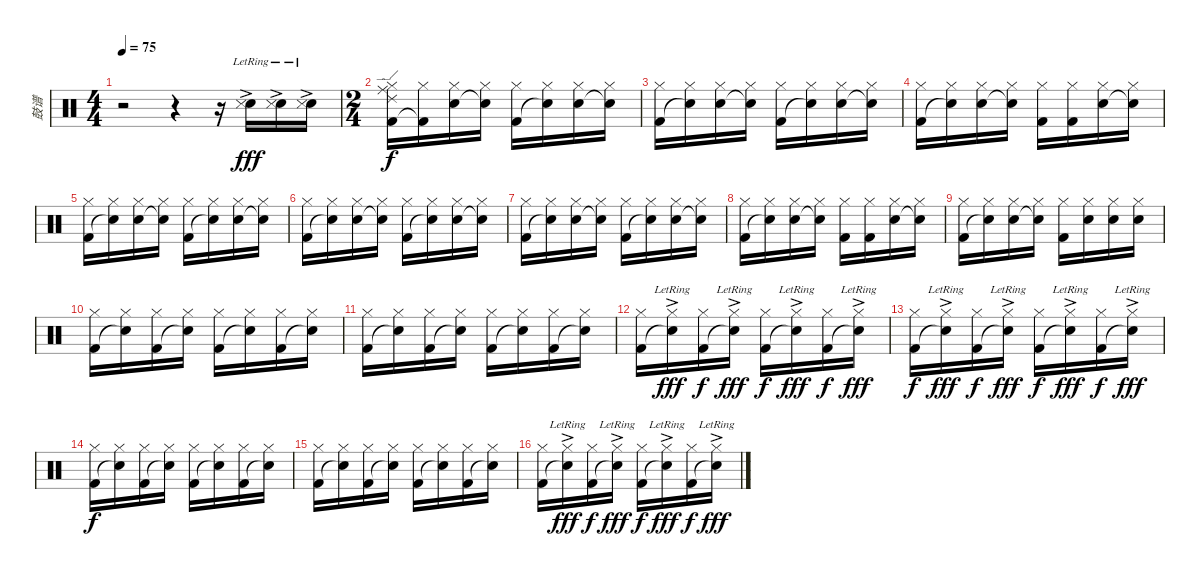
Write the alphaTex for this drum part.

\track ("鼓谱" "鼓谱") {instrument percussion}
\staff {score}
\articulation defaults
\ts (4 4)
\tempo 75
\clef neutral
\ks c
r.2{dy fff} r.4 r.16 ("Electric Snare (hit)"{ac lr} "Snare (side stick) 3"{ac lr}).16 ("Electric Snare (hit)"{ac lr} "Snare (side stick) 3"{ac lr}).16 ("Electric Snare (hit)"{ac lr} "Snare (side stick) 3"{ac lr}).16 |
\ts (2 4)
("Kick (hit) 2" "Ride (middle)" "Ride (edge) 2" "Hi-Hat (closed)").16{dy f} ("Kick (hit) 2"{t} "Hi-Hat (closed)").16 ("Electric Snare (hit)" "Hi-Hat (closed)").16 ("Snare (hit) 2"{t} "Hi-Hat (closed)").16 ("Kick (hit) 2" "Hi-Hat (closed)").16 ("Snare (hit) 2"{t} "Hi-Hat (closed)").16 ("Electric Snare (hit)" "Hi-Hat (closed)").16 ("Snare (hit) 2"{t} "Hi-Hat (closed)").16 |
("Kick (hit) 2" "Hi-Hat (closed)").16 ("Snare (hit)"{t} "Hi-Hat (closed)").16 ("Electric Snare (hit)" "Hi-Hat (closed)").16 ("Snare (hit)"{t} "Hi-Hat (closed)").16 ("Kick (hit) 2" "Hi-Hat (closed)").16 ("Snare (hit)"{t} "Hi-Hat (closed)").16 ("Electric Snare (hit)" "Hi-Hat (closed)").16 ("Snare (hit)"{t} "Hi-Hat (closed)").16 |
("Kick (hit) 2" "Hi-Hat (closed)").16 ("Snare (hit)"{t} "Hi-Hat (closed)").16 ("Electric Snare (hit)" "Hi-Hat (closed)").16 ("Snare (hit)"{t} "Hi-Hat (closed)").16 ("Kick (hit) 2" "Hi-Hat (closed)").16 ("Kick (hit) 2" "Hi-Hat (closed)").16 ("Electric Snare (hit)" "Hi-Hat (closed)").16 ("Snare (hit)"{t} "Hi-Hat (closed)").16 |
("Kick (hit) 2" "Hi-Hat (closed)").16 ("Snare (hit)"{t} "Hi-Hat (closed)").16 ("Electric Snare (hit)" "Hi-Hat (closed)").16 ("Snare (hit)"{t} "Hi-Hat (closed)").16 ("Kick (hit) 2" "Hi-Hat (closed)").16 ("Snare (hit)"{t} "Hi-Hat (closed)").16 ("Electric Snare (hit)" "Hi-Hat (closed)").16 ("Snare (hit)"{t} "Hi-Hat (closed)").16 |
("Kick (hit) 2" "Hi-Hat (closed)").16 ("Snare (hit)"{t} "Hi-Hat (closed)").16 ("Electric Snare (hit)" "Hi-Hat (closed)").16 ("Snare (hit)"{t} "Hi-Hat (closed)").16 ("Kick (hit) 2" "Hi-Hat (closed)").16 ("Snare (hit)"{t} "Hi-Hat (closed)").16 ("Electric Snare (hit)" "Hi-Hat (closed)").16 ("Snare (hit)"{t} "Hi-Hat (closed)").16 |
("Kick (hit) 2" "Hi-Hat (closed)").16 ("Snare (hit)"{t} "Hi-Hat (closed)").16 ("Electric Snare (hit)" "Hi-Hat (closed)").16 ("Snare (hit)"{t} "Hi-Hat (closed)").16 ("Kick (hit) 2" "Hi-Hat (closed)").16 ("Snare (hit)"{t} "Hi-Hat (closed)").16 ("Electric Snare (hit)" "Hi-Hat (closed)").16 ("Snare (hit)"{t} "Hi-Hat (closed)").16 |
("Kick (hit) 2" "Hi-Hat (closed)").16 ("Snare (hit)"{t} "Hi-Hat (closed)").16 ("Electric Snare (hit)" "Hi-Hat (closed)").16 ("Snare (hit)"{t} "Hi-Hat (closed)").16 ("Kick (hit) 2" "Hi-Hat (closed)").16 ("Kick (hit) 2" "Hi-Hat (closed)").16 ("Electric Snare (hit)" "Hi-Hat (closed)").16 ("Snare (hit)"{t} "Hi-Hat (closed)").16 |
("Kick (hit) 2" "Hi-Hat (closed)").16 ("Snare (hit)"{t} "Hi-Hat (closed)").16 ("Electric Snare (hit)" "Hi-Hat (closed)").16 ("Snare (hit)"{t} "Hi-Hat (closed)").16 ("Kick (hit) 2" "Hi-Hat (closed)").16 ("Electric Snare (hit)" "Hi-Hat (closed)").16 ("Electric Snare (hit)" "Hi-Hat (closed)").16{volume 14} ("Electric Snare (hit)" "Hi-Hat (closed)").16{volume 16} |
("Kick (hit) 2" "Hi-Hat (closed)").16{volume 12} ("Snare (hit)"{t} "Hi-Hat (closed)").16 ("Kick (hit) 2" "Hi-Hat (closed)").16 ("Snare (hit)"{t} "Hi-Hat (closed)").16 ("Kick (hit) 2" "Hi-Hat (closed)").16 ("Snare (hit)"{t} "Hi-Hat (closed)").16 ("Kick (hit) 2" "Hi-Hat (closed)").16 ("Snare (hit)"{t} "Hi-Hat (closed)").16 |
("Kick (hit) 2" "Hi-Hat (closed)").16 ("Snare (hit)"{t} "Hi-Hat (closed)").16 ("Kick (hit) 2" "Hi-Hat (closed)").16 ("Snare (hit)"{t} "Hi-Hat (closed)").16 ("Kick (hit) 2" "Hi-Hat (closed)").16 ("Snare (hit)"{t} "Hi-Hat (closed)").16 ("Kick (hit) 2" "Hi-Hat (closed)").16 ("Snare (hit)"{t} "Hi-Hat (closed)").16 |
("Kick (hit) 2" "Hi-Hat (closed)").16 ("Snare (hit)"{t} "Hi-Hat (closed)"{ac lr}).16{dy fff} ("Kick (hit) 2" "Hi-Hat (closed)").16{dy f} ("Snare (hit)"{t} "Hi-Hat (closed)"{ac lr}).16{dy fff} ("Kick (hit) 2" "Hi-Hat (closed)").16{dy f} ("Snare (hit)"{t} "Hi-Hat (closed)"{ac lr}).16{dy fff} ("Kick (hit) 2" "Hi-Hat (closed)").16{dy f} ("Snare (hit)"{t} "Hi-Hat (closed)"{ac lr}).16{dy fff} |
("Kick (hit) 2" "Hi-Hat (closed)").16{dy f} ("Snare (hit)"{t} "Hi-Hat (closed)"{ac lr}).16{dy fff} ("Kick (hit) 2" "Hi-Hat (closed)").16{dy f} ("Snare (hit)"{t} "Hi-Hat (closed)"{ac lr}).16{dy fff} ("Kick (hit) 2" "Hi-Hat (closed)").16{dy f} ("Snare (hit)"{t} "Hi-Hat (closed)"{ac lr}).16{dy fff} ("Kick (hit) 2" "Hi-Hat (closed)").16{dy f} ("Snare (hit)"{t} "Hi-Hat (closed)"{ac lr}).16{dy fff} |
("Kick (hit) 2" "Hi-Hat (closed)").16{dy f volume 12} ("Snare (hit)"{t} "Hi-Hat (closed)").16 ("Kick (hit) 2" "Hi-Hat (closed)").16 ("Snare (hit)"{t} "Hi-Hat (closed)").16 ("Kick (hit) 2" "Hi-Hat (closed)").16 ("Snare (hit)"{t} "Hi-Hat (closed)").16 ("Kick (hit) 2" "Hi-Hat (closed)").16 ("Snare (hit)"{t} "Hi-Hat (closed)").16 |
("Kick (hit) 2" "Hi-Hat (closed)").16 ("Snare (hit)"{t} "Hi-Hat (closed)").16 ("Kick (hit) 2" "Hi-Hat (closed)").16 ("Snare (hit)"{t} "Hi-Hat (closed)").16 ("Kick (hit) 2" "Hi-Hat (closed)").16 ("Snare (hit)"{t} "Hi-Hat (closed)").16 ("Kick (hit) 2" "Hi-Hat (closed)").16 ("Snare (hit)"{t} "Hi-Hat (closed)").16 |
("Kick (hit) 2" "Hi-Hat (closed)").16 ("Snare (hit)"{t} "Hi-Hat (closed)"{ac lr}).16{dy fff} ("Kick (hit) 2" "Hi-Hat (closed)").16{dy f} ("Snare (hit)"{t} "Hi-Hat (closed)"{ac lr}).16{dy fff} ("Kick (hit) 2" "Hi-Hat (closed)").16{dy f} ("Snare (hit)"{t} "Hi-Hat (closed)"{ac lr}).16{dy fff} ("Kick (hit) 2" "Hi-Hat (closed)").16{dy f} ("Snare (hit)"{t} "Hi-Hat (closed)"{ac lr}).16{dy fff}
